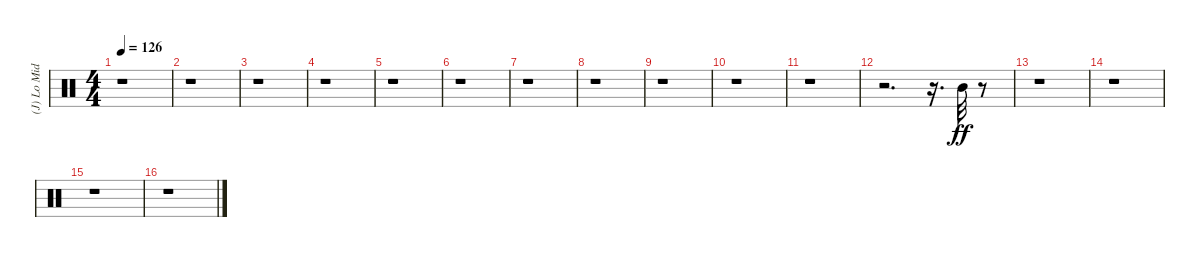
\track ("(J) Lo Mid Tom" "(J) Lo Mid") {instrument percussion}
\staff {score}
\articulation defaults
\ts (4 4)
\tempo 126
\clef neutral
\ks c
r.1{dy f} |
r.1 |
r.1 |
r.1 |
r.1 |
r.1 |
r.1 |
r.1 |
r.1 |
r.1 |
r.1 |
r.2{d} r.16{d} "Mid Tom (hit)".32{dy ff} r.8 |
r.1 |
r.1 |
r.1 |
r.1
